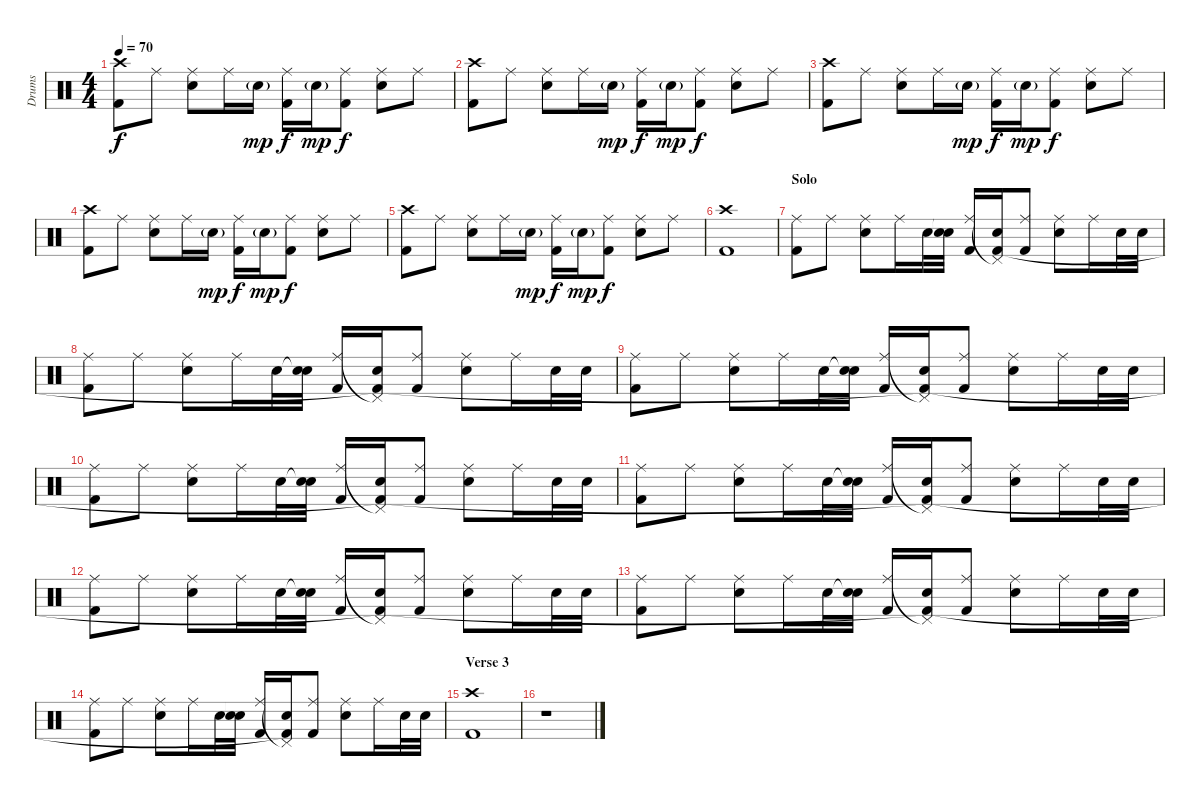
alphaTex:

\track ("Drums" "Drums") {instrument percussion}
\staff {score}
\articulation defaults
\ts (4 4)
\tempo 70
\clef neutral
\ks c
("Crash high (hit)" "Kick (hit) 2").8{dy f} "Ride (middle)".8 ("Ride (middle)" "Electric Snare (hit)").8 "Ride (middle)".16 "Electric Snare (hit)"{g}.16{dy mp} ("Ride (middle)" "Kick (hit) 2").16{dy f} "Electric Snare (hit)"{g}.16{dy mp} ("Ride (middle)" "Kick (hit) 2").8{dy f} ("Ride (middle)" "Electric Snare (hit)").8 "Ride (middle)".8 |
("Crash high (hit)" "Kick (hit) 2").8 "Ride (middle)".8 ("Ride (middle)" "Electric Snare (hit)").8 "Ride (middle)".16 "Electric Snare (hit)"{g}.16{dy mp} ("Ride (middle)" "Kick (hit) 2").16{dy f} "Electric Snare (hit)"{g}.16{dy mp} ("Ride (middle)" "Kick (hit) 2").8{dy f} ("Ride (middle)" "Electric Snare (hit)").8 "Ride (middle)".8 |
("Crash high (hit)" "Kick (hit) 2").8 "Ride (middle)".8 ("Ride (middle)" "Electric Snare (hit)").8 "Ride (middle)".16 "Electric Snare (hit)"{g}.16{dy mp} ("Ride (middle)" "Kick (hit) 2").16{dy f} "Electric Snare (hit)"{g}.16{dy mp} ("Ride (middle)" "Kick (hit) 2").8{dy f} ("Ride (middle)" "Electric Snare (hit)").8 "Ride (middle)".8 |
("Crash high (hit)" "Kick (hit) 2").8 "Ride (middle)".8 ("Ride (middle)" "Electric Snare (hit)").8 "Ride (middle)".16 "Electric Snare (hit)"{g}.16{dy mp} ("Ride (middle)" "Kick (hit) 2").16{dy f} "Electric Snare (hit)"{g}.16{dy mp} ("Ride (middle)" "Kick (hit) 2").8{dy f} ("Ride (middle)" "Electric Snare (hit)").8 "Ride (middle)".8 |
("Crash high (hit)" "Kick (hit) 2").8 "Ride (middle)".8 ("Ride (middle)" "Electric Snare (hit)").8 "Ride (middle)".16 "Electric Snare (hit)"{g}.16{dy mp} ("Ride (middle)" "Kick (hit) 2").16{dy f} "Electric Snare (hit)"{g}.16{dy mp} ("Ride (middle)" "Kick (hit) 2").8{dy f} ("Ride (middle)" "Electric Snare (hit)").8 "Ride (middle)".8 |
("Crash high (hit)" "Kick (hit) 2").1 |
\section ("" "Solo")
("Ride (middle)" "Kick (hit) 2").8 "Ride (middle)".8 ("Ride (middle)" "Electric Snare (hit)").8 "Ride (middle)".16 "Electric Snare (hit)".32 ("Snare (hit)"{t} "Electric Snare (hit)").32 ("Ride (middle)" "Kick (hit) 2").16 ("Pedal Hi-Hat (hit)"{t} "Electric Snare (hit)" "Kick (hit) 2").16 ("Ride (middle)" "Kick (hit) 2").8 ("Ride (middle)" "Electric Snare (hit)").8 "Ride (middle)".16 "Electric Snare (hit)".32 "Electric Snare (hit)".32 |
("Ride (middle)" "Kick (hit) 2").8 "Ride (middle)".8 ("Ride (middle)" "Electric Snare (hit)").8 "Ride (middle)".16 "Electric Snare (hit)".32 ("Snare (hit)"{t} "Electric Snare (hit)").32 ("Ride (middle)" "Kick (hit) 2").16 ("Pedal Hi-Hat (hit)"{t} "Electric Snare (hit)" "Kick (hit) 2"{t}).16 ("Ride (middle)" "Kick (hit) 2").8 ("Ride (middle)" "Electric Snare (hit)").8 "Ride (middle)".16 "Electric Snare (hit)".32 "Electric Snare (hit)".32 |
("Ride (middle)" "Kick (hit) 2").8 "Ride (middle)".8 ("Ride (middle)" "Electric Snare (hit)").8 "Ride (middle)".16 "Electric Snare (hit)".32 ("Snare (hit)"{t} "Electric Snare (hit)").32 ("Ride (middle)" "Kick (hit) 2").16 ("Pedal Hi-Hat (hit)"{t} "Electric Snare (hit)" "Kick (hit) 2"{t}).16 ("Ride (middle)" "Kick (hit) 2").8 ("Ride (middle)" "Electric Snare (hit)").8 "Ride (middle)".16 "Electric Snare (hit)".32 "Electric Snare (hit)".32 |
("Ride (middle)" "Kick (hit) 2").8 "Ride (middle)".8 ("Ride (middle)" "Electric Snare (hit)").8 "Ride (middle)".16 "Electric Snare (hit)".32 ("Snare (hit)"{t} "Electric Snare (hit)").32 ("Ride (middle)" "Kick (hit) 2").16 ("Pedal Hi-Hat (hit)"{t} "Electric Snare (hit)" "Kick (hit) 2"{t}).16 ("Ride (middle)" "Kick (hit) 2").8 ("Ride (middle)" "Electric Snare (hit)").8 "Ride (middle)".16 "Electric Snare (hit)".32 "Electric Snare (hit)".32 |
("Ride (middle)" "Kick (hit) 2").8 "Ride (middle)".8 ("Ride (middle)" "Electric Snare (hit)").8 "Ride (middle)".16 "Electric Snare (hit)".32 ("Snare (hit)"{t} "Electric Snare (hit)").32 ("Ride (middle)" "Kick (hit) 2").16 ("Pedal Hi-Hat (hit)"{t} "Electric Snare (hit)" "Kick (hit) 2"{t}).16 ("Ride (middle)" "Kick (hit) 2").8 ("Ride (middle)" "Electric Snare (hit)").8 "Ride (middle)".16 "Electric Snare (hit)".32 "Electric Snare (hit)".32 |
("Ride (middle)" "Kick (hit) 2").8 "Ride (middle)".8 ("Ride (middle)" "Electric Snare (hit)").8 "Ride (middle)".16 "Electric Snare (hit)".32 ("Snare (hit)"{t} "Electric Snare (hit)").32 ("Ride (middle)" "Kick (hit) 2").16 ("Pedal Hi-Hat (hit)"{t} "Electric Snare (hit)" "Kick (hit) 2"{t}).16 ("Ride (middle)" "Kick (hit) 2").8 ("Ride (middle)" "Electric Snare (hit)").8 "Ride (middle)".16 "Electric Snare (hit)".32 "Electric Snare (hit)".32 |
("Ride (middle)" "Kick (hit) 2").8 "Ride (middle)".8 ("Ride (middle)" "Electric Snare (hit)").8 "Ride (middle)".16 "Electric Snare (hit)".32 ("Snare (hit)"{t} "Electric Snare (hit)").32 ("Ride (middle)" "Kick (hit) 2").16 ("Pedal Hi-Hat (hit)"{t} "Electric Snare (hit)" "Kick (hit) 2"{t}).16 ("Ride (middle)" "Kick (hit) 2").8 ("Ride (middle)" "Electric Snare (hit)").8 "Ride (middle)".16 "Electric Snare (hit)".32 "Electric Snare (hit)".32 |
("Ride (middle)" "Kick (hit) 2").8 "Ride (middle)".8 ("Ride (middle)" "Electric Snare (hit)").8 "Ride (middle)".16 "Electric Snare (hit)".32 ("Snare (hit)"{t} "Electric Snare (hit)").32 ("Ride (middle)" "Kick (hit) 2").16 ("Pedal Hi-Hat (hit)"{t} "Electric Snare (hit)" "Kick (hit) 2"{t}).16 ("Ride (middle)" "Kick (hit) 2").8 ("Ride (middle)" "Electric Snare (hit)").8 "Ride (middle)".16 "Electric Snare (hit)".32 "Electric Snare (hit)".32 |
\section ("" "Verse 3")
("Crash high (hit)" "Kick (hit) 2").1 |
r.1
